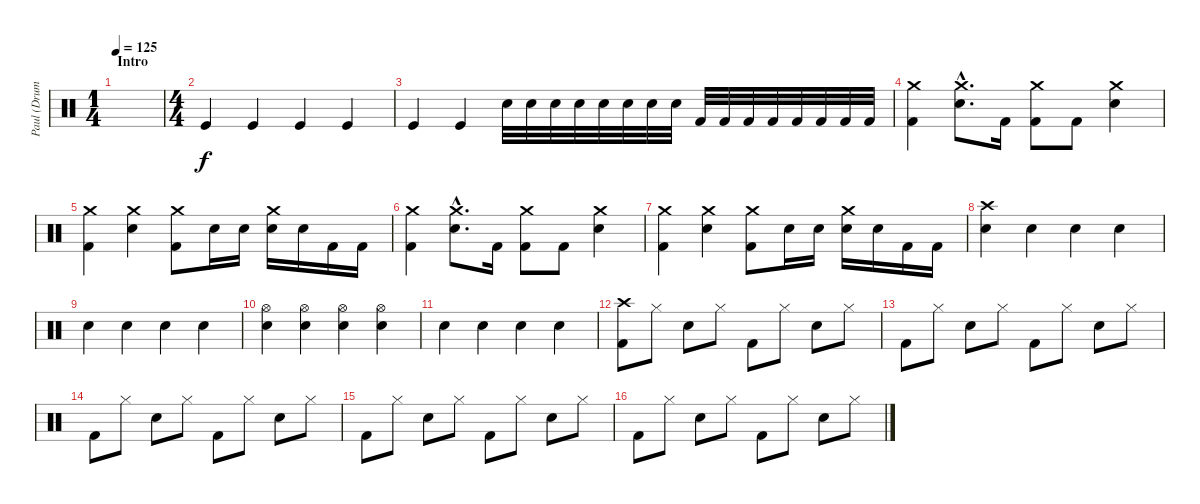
\track ("Paul (Drums)" "Paul (Drum") {instrument percussion}
\staff {score}
\articulation defaults
\ts (1 4)
\section ("" "Intro")
\tempo 125
\clef neutral
\ks c
|
\ts (4 4)
"Kick (hit)".4 "Kick (hit)".4 "Kick (hit)".4 "Kick (hit)".4 |
"Kick (hit)".4 "Kick (hit)".4 "Snare (hit) 2".32 "Snare (hit) 2".32 "Snare (hit) 2".32 "Snare (hit) 2".32 "Snare (hit) 2".32 "Snare (hit) 2".32 "Snare (hit) 2".32 "Snare (hit) 2".32 "Kick (hit) 2".32 "Kick (hit) 2".32 "Kick (hit) 2".32 "Kick (hit) 2".32 "Kick (hit) 2".32 "Kick (hit) 2".32 "Kick (hit) 2".32 "Kick (hit) 2".32 |
("Crash medium (hit)" "Kick (hit) 2").4 ("Crash medium (hit)"{hac} "Snare (hit) 2"{hac}).8{d} "Kick (hit) 2".16 ("Crash medium (hit)" "Kick (hit) 2").8 "Kick (hit) 2".8 ("Crash medium (hit)" "Snare (hit) 2").4 |
("Crash medium (hit)" "Kick (hit) 2").4 ("Crash medium (hit)" "Snare (hit) 2").4 ("Crash medium (hit)" "Kick (hit) 2").8 "Snare (hit) 2".16 "Snare (hit) 2".16 ("Crash medium (hit)" "Snare (hit) 2").16 "Snare (hit) 2".16 "Kick (hit) 2".16 "Kick (hit) 2".16 |
("Crash medium (hit)" "Kick (hit) 2").4 ("Crash medium (hit)"{hac} "Snare (hit) 2"{hac}).8{d} "Kick (hit) 2".16 ("Crash medium (hit)" "Kick (hit) 2").8 "Kick (hit) 2".8 ("Crash medium (hit)" "Snare (hit) 2").4 |
("Crash medium (hit)" "Kick (hit) 2").4 ("Crash medium (hit)" "Snare (hit) 2").4 ("Crash medium (hit)" "Kick (hit) 2").8 "Snare (hit) 2".16 "Snare (hit) 2".16 ("Crash medium (hit)" "Snare (hit) 2").16 "Snare (hit) 2".16 "Kick (hit) 2".16 "Kick (hit) 2".16 |
("Crash high (hit)" "Snare (hit) 2").4 "Snare (hit) 2".4 "Snare (hit) 2".4 "Snare (hit) 2".4 |
"Snare (hit) 2".4 "Snare (hit) 2".4 "Snare (hit) 2".4 "Snare (hit) 2".4 |
("Hi-Hat (open)" "Snare (hit) 2").4 ("Hi-Hat (open)" "Snare (hit) 2").4 ("Hi-Hat (open)" "Snare (hit) 2").4 ("Hi-Hat (open)" "Snare (hit) 2").4 |
"Snare (hit) 2".4 "Snare (hit) 2".4 "Snare (hit) 2".4 "Snare (hit) 2".4 |
("Crash high (hit)" "Kick (hit) 2").8 "Hi-Hat (closed)".8 "Snare (hit) 2".8 "Hi-Hat (closed)".8 "Kick (hit) 2".8 "Hi-Hat (closed)".8 "Snare (hit) 2".8 "Hi-Hat (closed)".8 |
"Kick (hit) 2".8 "Hi-Hat (closed)".8 "Snare (hit) 2".8 "Hi-Hat (closed)".8 "Kick (hit) 2".8 "Hi-Hat (closed)".8 "Snare (hit) 2".8 "Hi-Hat (closed)".8 |
"Kick (hit) 2".8 "Hi-Hat (closed)".8 "Snare (hit) 2".8 "Hi-Hat (closed)".8 "Kick (hit) 2".8 "Hi-Hat (closed)".8 "Snare (hit) 2".8 "Hi-Hat (closed)".8 |
"Kick (hit) 2".8 "Hi-Hat (closed)".8 "Snare (hit) 2".8 "Hi-Hat (closed)".8 "Kick (hit) 2".8 "Hi-Hat (closed)".8 "Snare (hit) 2".8 "Hi-Hat (closed)".8 |
"Kick (hit) 2".8 "Hi-Hat (closed)".8 "Snare (hit) 2".8 "Hi-Hat (closed)".8 "Kick (hit) 2".8 "Hi-Hat (closed)".8 "Snare (hit) 2".8 "Hi-Hat (closed)".8
